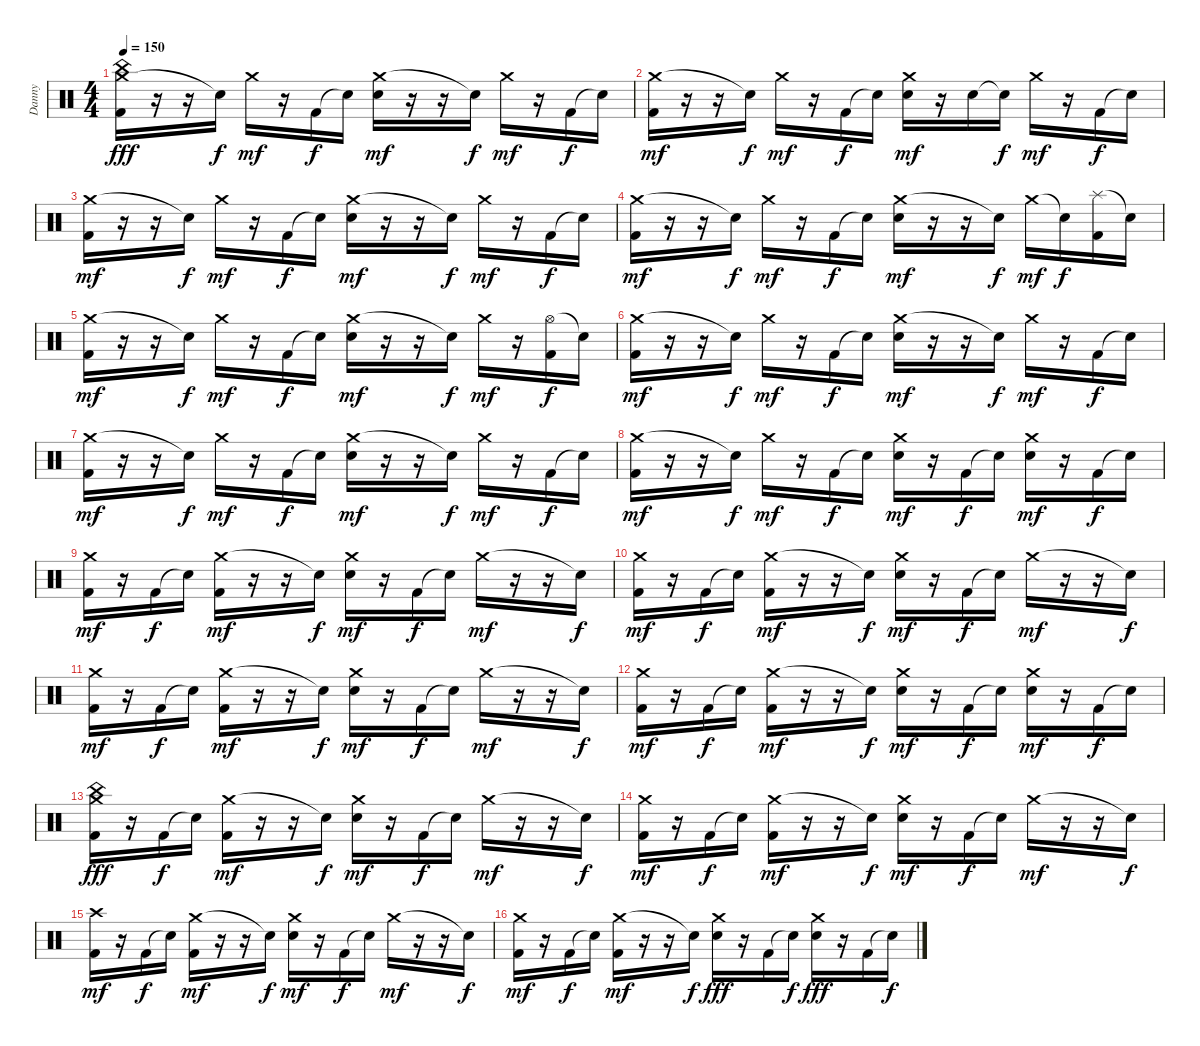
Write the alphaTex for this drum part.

\track ("Danny" "Danny") {instrument percussion}
\staff {score}
\articulation defaults
\ts (4 4)
\tempo 150
\clef neutral
\ks c
("Crash medium (hit)" "China (hit)" "Kick (hit) 2").16{dy fff} r.16 r.16 "Snare (hit)"{t}.16{dy f} "Crash medium (hit)".16{dy mf} r.16 "Kick (hit) 2".16{dy f} "Snare (hit)"{t}.16 ("Crash medium (hit)" "Snare (hit) 2").16{dy mf} r.16 r.16 "Snare (hit)"{t}.16{dy f} "Crash medium (hit)".16{dy mf} r.16 "Kick (hit) 2".16{dy f} "Snare (hit)"{t}.16 |
("Crash medium (hit)" "Kick (hit) 2").16{dy mf} r.16 r.16 "Snare (hit)"{t}.16{dy f} "Crash medium (hit)".16{dy mf} r.16 "Kick (hit) 2".16{dy f} "Snare (hit)"{t}.16 ("Crash medium (hit)" "Snare (hit) 2").16{dy mf} r.16 "Snare (hit) 2".16 "Snare (hit)"{t}.16{dy f} "Crash medium (hit)".16{dy mf} r.16 "Kick (hit) 2".16{dy f} "Snare (hit)"{t}.16 |
("Crash medium (hit)" "Kick (hit) 2").16{dy mf} r.16 r.16 "Snare (hit)"{t}.16{dy f} "Crash medium (hit)".16{dy mf} r.16 "Kick (hit) 2".16{dy f} "Snare (hit)"{t}.16 ("Crash medium (hit)" "Snare (hit) 2").16{dy mf} r.16 r.16 "Snare (hit)"{t}.16{dy f} "Crash medium (hit)".16{dy mf} r.16 "Kick (hit) 2".16{dy f} "Snare (hit)"{t}.16 |
("Crash medium (hit)" "Kick (hit) 2").16{dy mf} r.16 r.16 "Snare (hit)"{t}.16{dy f} "Crash medium (hit)".16{dy mf} r.16 "Kick (hit) 2".16{dy f} "Snare (hit)"{t}.16 ("Crash medium (hit)" "Snare (hit) 2").16{dy mf} r.16 r.16 "Snare (hit)"{t}.16{dy f} "Crash medium (hit)".16{dy mf} "Snare (hit)"{t}.16{dy f} ("Splash (hit)" "Kick (hit) 2").16 "Snare (hit)"{t}.16 |
("Crash medium (hit)" "Kick (hit) 2").16{dy mf} r.16 r.16 "Snare (hit)"{t}.16{dy f} "Crash medium (hit)".16{dy mf} r.16 "Kick (hit) 2".16{dy f} "Snare (hit)"{t}.16 ("Crash medium (hit)" "Snare (hit) 2").16{dy mf} r.16 r.16 "Snare (hit)"{t}.16{dy f} "Crash medium (hit)".16{dy mf} r.16 ("Hi-Hat (open)" "Kick (hit) 2").16{dy f} "Snare (hit)"{t}.16 |
("Crash medium (hit)" "Kick (hit) 2").16{dy mf} r.16 r.16 "Snare (hit)"{t}.16{dy f} "Crash medium (hit)".16{dy mf} r.16 "Kick (hit) 2".16{dy f} "Snare (hit)"{t}.16 ("Crash medium (hit)" "Snare (hit) 2").16{dy mf} r.16 r.16 "Snare (hit)"{t}.16{dy f} "Crash medium (hit)".16{dy mf} r.16 "Kick (hit) 2".16{dy f} "Snare (hit)"{t}.16 |
("Crash medium (hit)" "Kick (hit) 2").16{dy mf} r.16 r.16 "Snare (hit)"{t}.16{dy f} "Crash medium (hit)".16{dy mf} r.16 "Kick (hit) 2".16{dy f} "Snare (hit)"{t}.16 ("Crash medium (hit)" "Snare (hit) 2").16{dy mf} r.16 r.16 "Snare (hit)"{t}.16{dy f} "Crash medium (hit)".16{dy mf} r.16 "Kick (hit) 2".16{dy f} "Snare (hit)"{t}.16 |
("Crash medium (hit)" "Kick (hit) 2").16{dy mf} r.16 r.16 "Snare (hit)"{t}.16{dy f} "Crash medium (hit)".16{dy mf} r.16 "Kick (hit) 2".16{dy f} "Snare (hit)"{t}.16 ("Crash medium (hit)" "Snare (hit) 2").16{dy mf} r.16 "Kick (hit) 2".16{dy f} "Snare (hit)"{t}.16 ("Crash medium (hit)" "Snare (hit) 2").16{dy mf} r.16 "Kick (hit) 2".16{dy f} "Snare (hit)"{t}.16 |
("Crash medium (hit)" "Kick (hit) 2").16{dy mf} r.16 "Kick (hit) 2".16{dy f} "Snare (hit)"{t}.16 ("Crash medium (hit)" "Kick (hit) 2").16{dy mf} r.16 r.16 "Snare (hit)"{t}.16{dy f} ("Crash medium (hit)" "Snare (hit) 2").16{dy mf} r.16 "Kick (hit) 2".16{dy f} "Snare (hit)"{t}.16 "Crash medium (hit)".16{dy mf} r.16 r.16 "Snare (hit)"{t}.16{dy f} |
("Crash medium (hit)" "Kick (hit) 2").16{dy mf} r.16 "Kick (hit) 2".16{dy f} "Snare (hit)"{t}.16 ("Crash medium (hit)" "Kick (hit) 2").16{dy mf} r.16 r.16 "Snare (hit)"{t}.16{dy f} ("Crash medium (hit)" "Snare (hit) 2").16{dy mf} r.16 "Kick (hit) 2".16{dy f} "Snare (hit)"{t}.16 "Crash medium (hit)".16{dy mf} r.16 r.16 "Snare (hit)"{t}.16{dy f} |
("Crash medium (hit)" "Kick (hit) 2").16{dy mf} r.16 "Kick (hit) 2".16{dy f} "Snare (hit)"{t}.16 ("Crash medium (hit)" "Kick (hit) 2").16{dy mf} r.16 r.16 "Snare (hit)"{t}.16{dy f} ("Crash medium (hit)" "Snare (hit) 2").16{dy mf} r.16 "Kick (hit) 2".16{dy f} "Snare (hit)"{t}.16 "Crash medium (hit)".16{dy mf} r.16 r.16 "Snare (hit)"{t}.16{dy f} |
("Crash medium (hit)" "Kick (hit) 2").16{dy mf} r.16 "Kick (hit) 2".16{dy f} "Snare (hit)"{t}.16 ("Crash medium (hit)" "Kick (hit) 2").16{dy mf} r.16 r.16 "Snare (hit)"{t}.16{dy f} ("Crash medium (hit)" "Snare (hit) 2").16{dy mf} r.16 "Kick (hit) 2".16{dy f} "Snare (hit)"{t}.16 ("Crash medium (hit)" "Snare (hit) 2").16{dy mf} r.16 "Kick (hit) 2".16{dy f} "Snare (hit)"{t}.16 |
("Crash medium (hit)" "China (hit)" "Kick (hit) 2").16{dy fff} r.16 "Kick (hit) 2".16{dy f} "Snare (hit)"{t}.16 ("Crash medium (hit)" "Kick (hit) 2").16{dy mf} r.16 r.16 "Snare (hit)"{t}.16{dy f} ("Crash medium (hit)" "Snare (hit) 2").16{dy mf} r.16 "Kick (hit) 2".16{dy f} "Snare (hit)"{t}.16 "Crash medium (hit)".16{dy mf} r.16 r.16 "Snare (hit)"{t}.16{dy f} |
("Crash medium (hit)" "Kick (hit) 2").16{dy mf} r.16 "Kick (hit) 2".16{dy f} "Snare (hit)"{t}.16 ("Crash medium (hit)" "Kick (hit) 2").16{dy mf} r.16 r.16 "Snare (hit)"{t}.16{dy f} ("Crash medium (hit)" "Snare (hit) 2").16{dy mf} r.16 "Kick (hit) 2".16{dy f} "Snare (hit)"{t}.16 "Crash medium (hit)".16{dy mf} r.16 r.16 "Snare (hit)"{t}.16{dy f} |
("Crash high (hit)" "Kick (hit) 2").16{dy mf} r.16 "Kick (hit) 2".16{dy f} "Snare (hit)"{t}.16 ("Crash medium (hit)" "Kick (hit) 2").16{dy mf} r.16 r.16 "Snare (hit)"{t}.16{dy f} ("Crash medium (hit)" "Snare (hit) 2").16{dy mf} r.16 "Kick (hit) 2".16{dy f} "Snare (hit)"{t}.16 "Crash medium (hit)".16{dy mf} r.16 r.16 "Snare (hit)"{t}.16{dy f} |
("Crash medium (hit)" "Kick (hit) 2").16{dy mf} r.16 "Kick (hit) 2".16{dy f} "Snare (hit)"{t}.16 ("Crash medium (hit)" "Kick (hit) 2").16{dy mf} r.16 r.16 "Snare (hit)"{t}.16{dy f} ("Crash medium (hit)" "Snare (hit) 2").16{dy fff} r.16 "Kick (hit) 2".16 "Snare (hit)"{t}.16{dy f} ("Crash medium (hit)" "Snare (hit) 2").16{dy fff} r.16 "Kick (hit) 2".16 "Snare (hit)"{t}.16{dy f}
